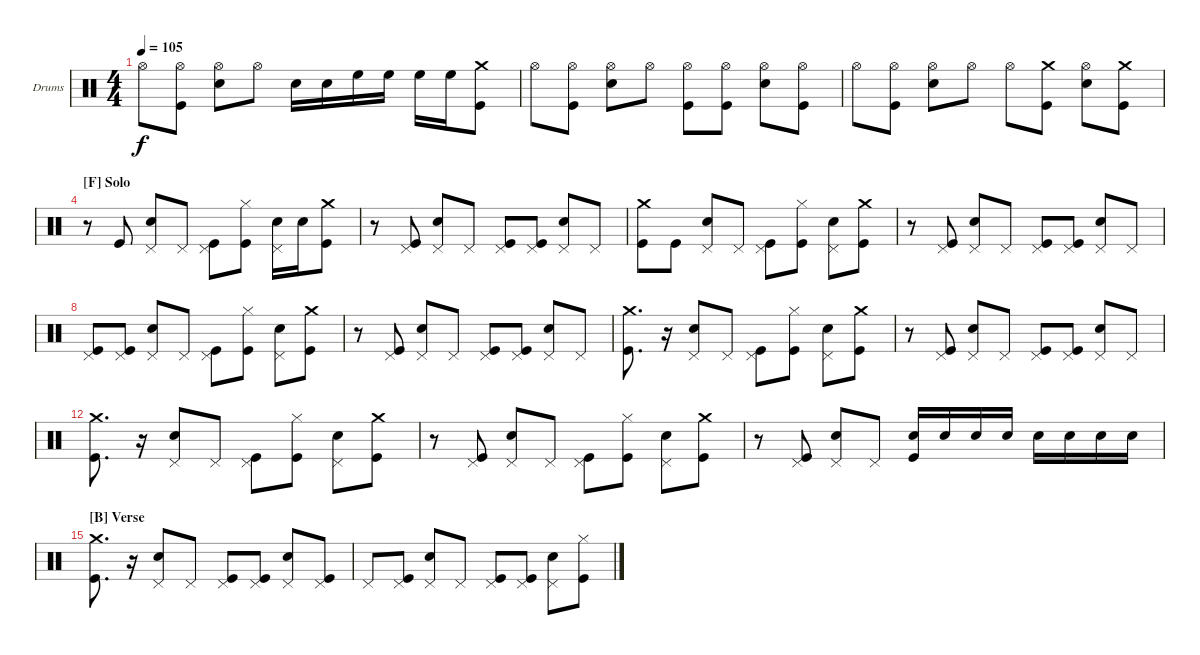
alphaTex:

\bracketExtendMode nobrackets
\firstSystemTrackNameOrientation horizontal
\otherSystemsTrackNameOrientation horizontal
\defaultBarNumberDisplay FirstOfSystem
\track ("Drumkit" "Drums") {instrument percussion}
\staff {score}
\articulation defaults
\ts (4 4)
\tempo 105
\clef neutral
\ks c "Hi-Hat (open)".8{dy f}
("Kick (hit)" "Hi-Hat (open)").8 ("Snare (hit) 2" "Hi-Hat (open)").8 "Hi-Hat (open)".8 "Snare (hit) 2".16 "Snare (hit) 2".16 "High Floor Tom (hit)".16 "High Floor Tom (hit)".16 "High Floor Tom (hit)".16 "High Floor Tom (hit)".16 ("Kick (hit)" "Crash medium (hit)").8 |
"Hi-Hat (open)".8 ("Kick (hit)" "Hi-Hat (open)").8 ("Snare (hit) 2" "Hi-Hat (open)").8 "Hi-Hat (open)".8 ("Kick (hit)" "Hi-Hat (open)").8 ("Kick (hit)" "Hi-Hat (open)").8 ("Snare (hit) 2" "Hi-Hat (open)").8 ("Kick (hit)" "Hi-Hat (open)").8 |
"Hi-Hat (open)".8 ("Kick (hit)" "Hi-Hat (open)").8 ("Snare (hit) 2" "Hi-Hat (open)").8 "Hi-Hat (open)".8 "Hi-Hat (open)".8 ("Kick (hit)" "Crash medium (hit)").8 ("Snare (hit) 2" "Hi-Hat (open)").8 ("Kick (hit)" "Crash medium (hit)").8 |
\section ("F" "Solo")
r.8 "Kick (hit)".8 ("Snare (hit) 2" "Pedal Hi-Hat (hit)").8 "Pedal Hi-Hat (hit)".8 ("Kick (hit)" "Pedal Hi-Hat (hit)").8 ("Kick (hit)" "Hi-Hat (closed)").8 ("Snare (hit) 2" "Pedal Hi-Hat (hit)").16 "Snare (hit) 2".16 ("Kick (hit)" "Crash medium (hit)").8 |
r.8 ("Kick (hit)" "Pedal Hi-Hat (hit)").8 ("Snare (hit) 2" "Pedal Hi-Hat (hit)").8 "Pedal Hi-Hat (hit)".8 ("Kick (hit)" "Pedal Hi-Hat (hit)").8 ("Kick (hit)" "Pedal Hi-Hat (hit)").8 ("Snare (hit) 2" "Pedal Hi-Hat (hit)").8 "Pedal Hi-Hat (hit)".8 |
("Kick (hit)" "Crash medium (hit)").8 "Kick (hit)".8 ("Snare (hit) 2" "Pedal Hi-Hat (hit)").8 "Pedal Hi-Hat (hit)".8 ("Kick (hit)" "Pedal Hi-Hat (hit)").8 ("Kick (hit)" "Hi-Hat (closed)").8 ("Snare (hit) 2" "Pedal Hi-Hat (hit)").8 ("Kick (hit)" "Crash medium (hit)").8 |
r.8 ("Kick (hit)" "Pedal Hi-Hat (hit)").8 ("Snare (hit) 2" "Pedal Hi-Hat (hit)").8 "Pedal Hi-Hat (hit)".8 ("Kick (hit)" "Pedal Hi-Hat (hit)").8 ("Kick (hit)" "Pedal Hi-Hat (hit)").8 ("Snare (hit) 2" "Pedal Hi-Hat (hit)").8 "Pedal Hi-Hat (hit)".8 |
("Kick (hit)" "Pedal Hi-Hat (hit)").8 ("Kick (hit)" "Pedal Hi-Hat (hit)").8 ("Snare (hit) 2" "Pedal Hi-Hat (hit)").8 "Pedal Hi-Hat (hit)".8 ("Kick (hit)" "Pedal Hi-Hat (hit)").8 ("Kick (hit)" "Hi-Hat (closed)").8 ("Snare (hit) 2" "Pedal Hi-Hat (hit)").8 ("Kick (hit)" "Crash medium (hit)").8 |
r.8 ("Kick (hit)" "Pedal Hi-Hat (hit)").8 ("Snare (hit) 2" "Pedal Hi-Hat (hit)").8 "Pedal Hi-Hat (hit)".8 ("Kick (hit)" "Pedal Hi-Hat (hit)").8 ("Kick (hit)" "Pedal Hi-Hat (hit)").8 ("Snare (hit) 2" "Pedal Hi-Hat (hit)").8 "Pedal Hi-Hat (hit)".8 |
("Kick (hit)" "Crash medium (hit)").8{d} r.16 ("Snare (hit) 2" "Pedal Hi-Hat (hit)").8 "Pedal Hi-Hat (hit)".8 ("Kick (hit)" "Pedal Hi-Hat (hit)").8 ("Kick (hit)" "Hi-Hat (closed)").8 ("Snare (hit) 2" "Pedal Hi-Hat (hit)").8 ("Kick (hit)" "Crash medium (hit)").8 |
r.8 ("Kick (hit)" "Pedal Hi-Hat (hit)").8 ("Snare (hit) 2" "Pedal Hi-Hat (hit)").8 "Pedal Hi-Hat (hit)".8 ("Kick (hit)" "Pedal Hi-Hat (hit)").8 ("Kick (hit)" "Pedal Hi-Hat (hit)").8 ("Snare (hit) 2" "Pedal Hi-Hat (hit)").8 "Pedal Hi-Hat (hit)".8 |
("Kick (hit)" "Crash medium (hit)").8{d} r.16 ("Snare (hit) 2" "Pedal Hi-Hat (hit)").8 "Pedal Hi-Hat (hit)".8 ("Kick (hit)" "Pedal Hi-Hat (hit)").8 ("Kick (hit)" "Hi-Hat (closed)").8 ("Snare (hit) 2" "Pedal Hi-Hat (hit)").8 ("Kick (hit)" "Crash medium (hit)").8 |
r.8 ("Kick (hit)" "Pedal Hi-Hat (hit)").8 ("Snare (hit) 2" "Pedal Hi-Hat (hit)").8 "Pedal Hi-Hat (hit)".8 ("Kick (hit)" "Pedal Hi-Hat (hit)").8 ("Kick (hit)" "Hi-Hat (closed)").8 ("Snare (hit) 2" "Pedal Hi-Hat (hit)").8 ("Kick (hit)" "Crash medium (hit)").8 |
r.8 ("Kick (hit)" "Pedal Hi-Hat (hit)").8 ("Snare (hit) 2" "Pedal Hi-Hat (hit)").8 "Pedal Hi-Hat (hit)".8 ("Kick (hit)" "Snare (hit) 2").16 "Snare (hit) 2".16 "Snare (hit) 2".16 "Snare (hit) 2".16 "Snare (hit) 2".16 "Snare (hit) 2".16 "Snare (hit) 2".16 "Snare (hit) 2".16 |
\section ("B" "Verse")
("Kick (hit)" "Crash medium (hit)").8{d} r.16 ("Snare (hit) 2" "Pedal Hi-Hat (hit)").8 "Pedal Hi-Hat (hit)".8 ("Kick (hit)" "Pedal Hi-Hat (hit)").8 ("Kick (hit)" "Pedal Hi-Hat (hit)").8 ("Snare (hit) 2" "Pedal Hi-Hat (hit)").8 ("Kick (hit)" "Pedal Hi-Hat (hit)").8 |
"Pedal Hi-Hat (hit)".8 ("Kick (hit)" "Pedal Hi-Hat (hit)").8 ("Snare (hit) 2" "Pedal Hi-Hat (hit)").8 "Pedal Hi-Hat (hit)".8 ("Kick (hit)" "Pedal Hi-Hat (hit)").8 ("Kick (hit)" "Pedal Hi-Hat (hit)").8 ("Snare (hit) 2" "Pedal Hi-Hat (hit)").8 ("Kick (hit)" "Hi-Hat (closed)").8
